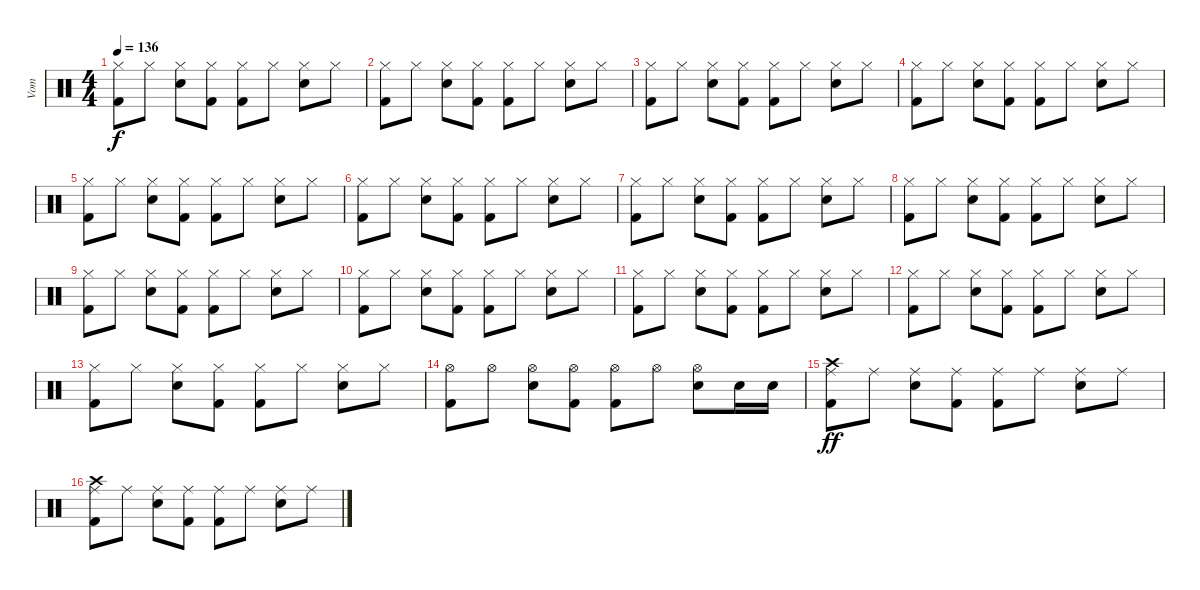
\track ("Vom" "Vom") {instrument percussion}
\staff {score}
\articulation defaults
\ts (4 4)
\tempo 136
\clef neutral
\ks c
("Hi-Hat (closed)" "Kick (hit) 2").8{dy f} "Hi-Hat (closed)".8 ("Hi-Hat (closed)" "Snare (hit) 2").8 ("Hi-Hat (closed)" "Kick (hit) 2").8 ("Hi-Hat (closed)" "Kick (hit) 2").8 "Hi-Hat (closed)".8 ("Hi-Hat (closed)" "Snare (hit) 2").8 "Hi-Hat (closed)".8 |
("Hi-Hat (closed)" "Kick (hit) 2").8 "Hi-Hat (closed)".8 ("Hi-Hat (closed)" "Snare (hit) 2").8 ("Hi-Hat (closed)" "Kick (hit) 2").8 ("Hi-Hat (closed)" "Kick (hit) 2").8 "Hi-Hat (closed)".8 ("Hi-Hat (closed)" "Snare (hit) 2").8 "Hi-Hat (closed)".8 |
("Hi-Hat (closed)" "Kick (hit) 2").8 "Hi-Hat (closed)".8 ("Hi-Hat (closed)" "Snare (hit) 2").8 ("Hi-Hat (closed)" "Kick (hit) 2").8 ("Hi-Hat (closed)" "Kick (hit) 2").8 "Hi-Hat (closed)".8 ("Hi-Hat (closed)" "Snare (hit) 2").8 "Hi-Hat (closed)".8 |
("Hi-Hat (closed)" "Kick (hit) 2").8 "Hi-Hat (closed)".8 ("Hi-Hat (closed)" "Snare (hit) 2").8 ("Hi-Hat (closed)" "Kick (hit) 2").8 ("Hi-Hat (closed)" "Kick (hit) 2").8 "Hi-Hat (closed)".8 ("Hi-Hat (closed)" "Snare (hit) 2").8 "Hi-Hat (closed)".8 |
("Hi-Hat (closed)" "Kick (hit) 2").8 "Hi-Hat (closed)".8 ("Hi-Hat (closed)" "Snare (hit) 2").8 ("Hi-Hat (closed)" "Kick (hit) 2").8 ("Hi-Hat (closed)" "Kick (hit) 2").8 "Hi-Hat (closed)".8 ("Hi-Hat (closed)" "Snare (hit) 2").8 "Hi-Hat (closed)".8 |
("Hi-Hat (closed)" "Kick (hit) 2").8 "Hi-Hat (closed)".8 ("Hi-Hat (closed)" "Snare (hit) 2").8 ("Hi-Hat (closed)" "Kick (hit) 2").8 ("Hi-Hat (closed)" "Kick (hit) 2").8 "Hi-Hat (closed)".8 ("Hi-Hat (closed)" "Snare (hit) 2").8 "Hi-Hat (closed)".8 |
("Hi-Hat (closed)" "Kick (hit) 2").8 "Hi-Hat (closed)".8 ("Hi-Hat (closed)" "Snare (hit) 2").8 ("Hi-Hat (closed)" "Kick (hit) 2").8 ("Hi-Hat (closed)" "Kick (hit) 2").8 "Hi-Hat (closed)".8 ("Hi-Hat (closed)" "Snare (hit) 2").8 "Hi-Hat (closed)".8 |
("Hi-Hat (closed)" "Kick (hit) 2").8 "Hi-Hat (closed)".8 ("Hi-Hat (closed)" "Snare (hit) 2").8 ("Hi-Hat (closed)" "Kick (hit) 2").8 ("Hi-Hat (closed)" "Kick (hit) 2").8 "Hi-Hat (closed)".8 ("Hi-Hat (closed)" "Snare (hit) 2").8 "Hi-Hat (closed)".8 |
("Hi-Hat (closed)" "Kick (hit) 2").8 "Hi-Hat (closed)".8 ("Hi-Hat (closed)" "Snare (hit) 2").8 ("Hi-Hat (closed)" "Kick (hit) 2").8 ("Hi-Hat (closed)" "Kick (hit) 2").8 "Hi-Hat (closed)".8 ("Hi-Hat (closed)" "Snare (hit) 2").8 "Hi-Hat (closed)".8 |
("Hi-Hat (closed)" "Kick (hit) 2").8 "Hi-Hat (closed)".8 ("Hi-Hat (closed)" "Snare (hit) 2").8 ("Hi-Hat (closed)" "Kick (hit) 2").8 ("Hi-Hat (closed)" "Kick (hit) 2").8 "Hi-Hat (closed)".8 ("Hi-Hat (closed)" "Snare (hit) 2").8 "Hi-Hat (closed)".8 |
("Hi-Hat (closed)" "Kick (hit) 2").8 "Hi-Hat (closed)".8 ("Hi-Hat (closed)" "Snare (hit) 2").8 ("Hi-Hat (closed)" "Kick (hit) 2").8 ("Hi-Hat (closed)" "Kick (hit) 2").8 "Hi-Hat (closed)".8 ("Hi-Hat (closed)" "Snare (hit) 2").8 "Hi-Hat (closed)".8 |
("Hi-Hat (closed)" "Kick (hit) 2").8 "Hi-Hat (closed)".8 ("Hi-Hat (closed)" "Snare (hit) 2").8 ("Hi-Hat (closed)" "Kick (hit) 2").8 ("Hi-Hat (closed)" "Kick (hit) 2").8 "Hi-Hat (closed)".8 ("Hi-Hat (closed)" "Snare (hit) 2").8 "Hi-Hat (closed)".8 |
("Hi-Hat (closed)" "Kick (hit) 2").8 "Hi-Hat (closed)".8 ("Hi-Hat (closed)" "Snare (hit) 2").8 ("Hi-Hat (closed)" "Kick (hit) 2").8 ("Hi-Hat (closed)" "Kick (hit) 2").8 "Hi-Hat (closed)".8 ("Hi-Hat (closed)" "Snare (hit) 2").8 "Hi-Hat (closed)".8 |
("Hi-Hat (open)" "Kick (hit) 2").8 "Hi-Hat (open)".8 ("Hi-Hat (open)" "Snare (hit) 2").8 ("Hi-Hat (open)" "Kick (hit) 2").8 ("Hi-Hat (open)" "Kick (hit) 2").8 "Hi-Hat (open)".8 ("Hi-Hat (open)" "Snare (hit) 2").8 "Snare (hit) 2".16 "Snare (hit) 2".16 |
("Ride (middle)" "Kick (hit) 2" "Crash high (hit)").8{dy ff} "Ride (middle)".8 ("Ride (middle)" "Snare (hit) 2").8 ("Ride (middle)" "Kick (hit) 2").8 ("Ride (middle)" "Kick (hit) 2").8 "Ride (middle)".8 ("Ride (middle)" "Snare (hit) 2").8 "Ride (middle)".8 |
("Ride (middle)" "Kick (hit) 2" "Crash high (hit)").8 "Ride (middle)".8 ("Ride (middle)" "Snare (hit) 2").8 ("Ride (middle)" "Kick (hit) 2").8 ("Ride (middle)" "Kick (hit) 2").8 "Ride (middle)".8 ("Ride (middle)" "Snare (hit) 2").8 "Ride (middle)".8
